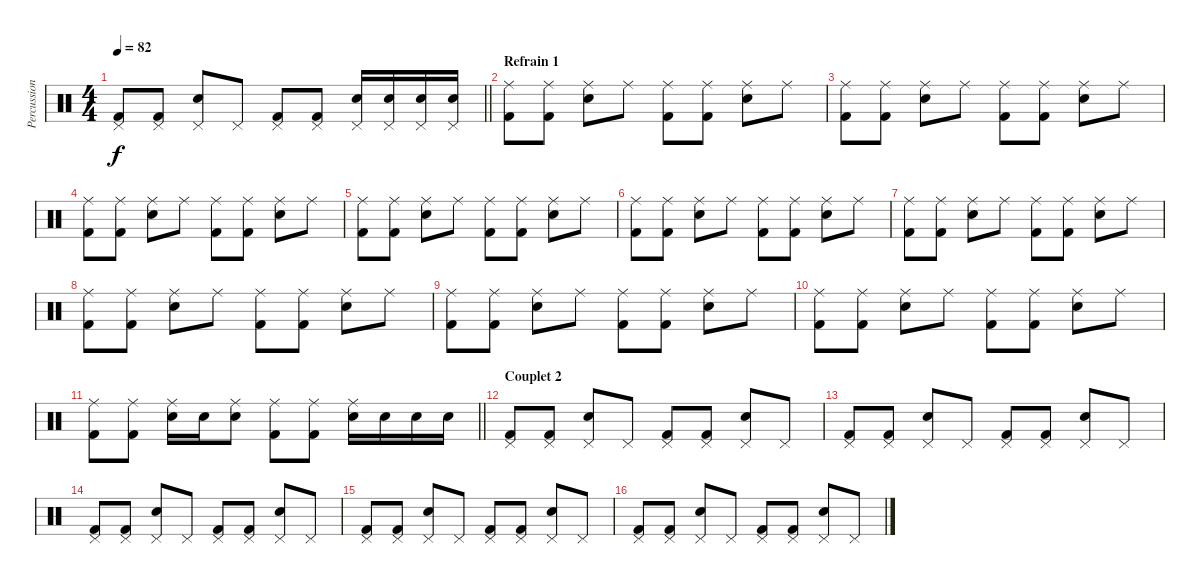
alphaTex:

\track ("Percussions" "Percussion") {instrument percussion}
\staff
\articulation defaults
\ts (4 4)
\tempo 82
\clef neutral
\barLineRight lightlight
\ks c
("Pedal Hi-Hat (hit)" "Kick (hit) 2").8{dy f} ("Pedal Hi-Hat (hit)" "Kick (hit) 2").8 ("Pedal Hi-Hat (hit)" "Electric Snare (hit)").8 "Pedal Hi-Hat (hit)".8 ("Pedal Hi-Hat (hit)" "Kick (hit) 2").8 ("Pedal Hi-Hat (hit)" "Kick (hit) 2").8 ("Pedal Hi-Hat (hit)" "Electric Snare (hit)").16 ("Pedal Hi-Hat (hit)" "Electric Snare (hit)").16 ("Pedal Hi-Hat (hit)" "Electric Snare (hit)").16 ("Pedal Hi-Hat (hit)" "Electric Snare (hit)").16 |
\section ("" "Refrain 1")
("Ride (middle)" "Kick (hit) 2").8 ("Ride (middle)" "Kick (hit) 2").8 ("Ride (middle)" "Electric Snare (hit)").8 "Ride (middle)".8 ("Ride (middle)" "Kick (hit) 2").8 ("Ride (middle)" "Kick (hit) 2").8 ("Ride (middle)" "Electric Snare (hit)").8 "Ride (middle)".8 |
("Ride (middle)" "Kick (hit) 2").8 ("Ride (middle)" "Kick (hit) 2").8 ("Ride (middle)" "Electric Snare (hit)").8 "Ride (middle)".8 ("Ride (middle)" "Kick (hit) 2").8 ("Ride (middle)" "Kick (hit) 2").8 ("Ride (middle)" "Electric Snare (hit)").8 "Ride (middle)".8 |
("Ride (middle)" "Kick (hit) 2").8 ("Ride (middle)" "Kick (hit) 2").8 ("Ride (middle)" "Electric Snare (hit)").8 "Ride (middle)".8 ("Ride (middle)" "Kick (hit) 2").8 ("Ride (middle)" "Kick (hit) 2").8 ("Ride (middle)" "Electric Snare (hit)").8 "Ride (middle)".8 |
("Ride (middle)" "Kick (hit) 2").8 ("Ride (middle)" "Kick (hit) 2").8 ("Ride (middle)" "Electric Snare (hit)").8 "Ride (middle)".8 ("Ride (middle)" "Kick (hit) 2").8 ("Ride (middle)" "Kick (hit) 2").8 ("Ride (middle)" "Electric Snare (hit)").8 "Ride (middle)".8 |
("Ride (middle)" "Kick (hit) 2").8 ("Ride (middle)" "Kick (hit) 2").8 ("Ride (middle)" "Electric Snare (hit)").8 "Ride (middle)".8 ("Ride (middle)" "Kick (hit) 2").8 ("Ride (middle)" "Kick (hit) 2").8 ("Ride (middle)" "Electric Snare (hit)").8 "Ride (middle)".8 |
("Ride (middle)" "Kick (hit) 2").8 ("Ride (middle)" "Kick (hit) 2").8 ("Ride (middle)" "Electric Snare (hit)").8 "Ride (middle)".8 ("Ride (middle)" "Kick (hit) 2").8 ("Ride (middle)" "Kick (hit) 2").8 ("Ride (middle)" "Electric Snare (hit)").8 "Ride (middle)".8 |
("Ride (middle)" "Kick (hit) 2").8 ("Ride (middle)" "Kick (hit) 2").8 ("Ride (middle)" "Electric Snare (hit)").8 "Ride (middle)".8 ("Ride (middle)" "Kick (hit) 2").8 ("Ride (middle)" "Kick (hit) 2").8 ("Ride (middle)" "Electric Snare (hit)").8 "Ride (middle)".8 |
("Ride (middle)" "Kick (hit) 2").8 ("Ride (middle)" "Kick (hit) 2").8 ("Ride (middle)" "Electric Snare (hit)").8 "Ride (middle)".8 ("Ride (middle)" "Kick (hit) 2").8 ("Ride (middle)" "Kick (hit) 2").8 ("Ride (middle)" "Electric Snare (hit)").8 "Ride (middle)".8 |
("Ride (middle)" "Kick (hit) 2").8 ("Ride (middle)" "Kick (hit) 2").8 ("Ride (middle)" "Electric Snare (hit)").8 "Ride (middle)".8 ("Ride (middle)" "Kick (hit) 2").8 ("Ride (middle)" "Kick (hit) 2").8 ("Ride (middle)" "Electric Snare (hit)").8 "Ride (middle)".8 |
\barLineRight lightlight
("Ride (middle)" "Kick (hit) 2").8 ("Ride (middle)" "Kick (hit) 2").8 ("Ride (middle)" "Electric Snare (hit)").16 "Electric Snare (hit)".16 ("Ride (middle)" "Electric Snare (hit)").8 ("Ride (middle)" "Kick (hit) 2").8 ("Ride (middle)" "Kick (hit) 2").8 ("Ride (middle)" "Electric Snare (hit)").16 "Electric Snare (hit)".16 "Electric Snare (hit)".16 "Electric Snare (hit)".16 |
\section ("" "Couplet 2")
("Pedal Hi-Hat (hit)" "Kick (hit) 2").8 ("Pedal Hi-Hat (hit)" "Kick (hit) 2").8 ("Pedal Hi-Hat (hit)" "Electric Snare (hit)").8 "Pedal Hi-Hat (hit)".8 ("Pedal Hi-Hat (hit)" "Kick (hit) 2").8 ("Pedal Hi-Hat (hit)" "Kick (hit) 2").8 ("Pedal Hi-Hat (hit)" "Electric Snare (hit)").8 "Pedal Hi-Hat (hit)".8 |
("Pedal Hi-Hat (hit)" "Kick (hit) 2").8 ("Pedal Hi-Hat (hit)" "Kick (hit) 2").8 ("Pedal Hi-Hat (hit)" "Electric Snare (hit)").8 "Pedal Hi-Hat (hit)".8 ("Pedal Hi-Hat (hit)" "Kick (hit) 2").8 ("Pedal Hi-Hat (hit)" "Kick (hit) 2").8 ("Pedal Hi-Hat (hit)" "Electric Snare (hit)").8 "Pedal Hi-Hat (hit)".8 |
("Pedal Hi-Hat (hit)" "Kick (hit) 2").8 ("Pedal Hi-Hat (hit)" "Kick (hit) 2").8 ("Pedal Hi-Hat (hit)" "Electric Snare (hit)").8 "Pedal Hi-Hat (hit)".8 ("Pedal Hi-Hat (hit)" "Kick (hit) 2").8 ("Pedal Hi-Hat (hit)" "Kick (hit) 2").8 ("Pedal Hi-Hat (hit)" "Electric Snare (hit)").8 "Pedal Hi-Hat (hit)".8 |
("Pedal Hi-Hat (hit)" "Kick (hit) 2").8 ("Pedal Hi-Hat (hit)" "Kick (hit) 2").8 ("Pedal Hi-Hat (hit)" "Electric Snare (hit)").8 "Pedal Hi-Hat (hit)".8 ("Pedal Hi-Hat (hit)" "Kick (hit) 2").8 ("Pedal Hi-Hat (hit)" "Kick (hit) 2").8 ("Pedal Hi-Hat (hit)" "Electric Snare (hit)").8 "Pedal Hi-Hat (hit)".8 |
("Pedal Hi-Hat (hit)" "Kick (hit) 2").8 ("Pedal Hi-Hat (hit)" "Kick (hit) 2").8 ("Pedal Hi-Hat (hit)" "Electric Snare (hit)").8 "Pedal Hi-Hat (hit)".8 ("Pedal Hi-Hat (hit)" "Kick (hit) 2").8 ("Pedal Hi-Hat (hit)" "Kick (hit) 2").8 ("Pedal Hi-Hat (hit)" "Electric Snare (hit)").8 "Pedal Hi-Hat (hit)".8
